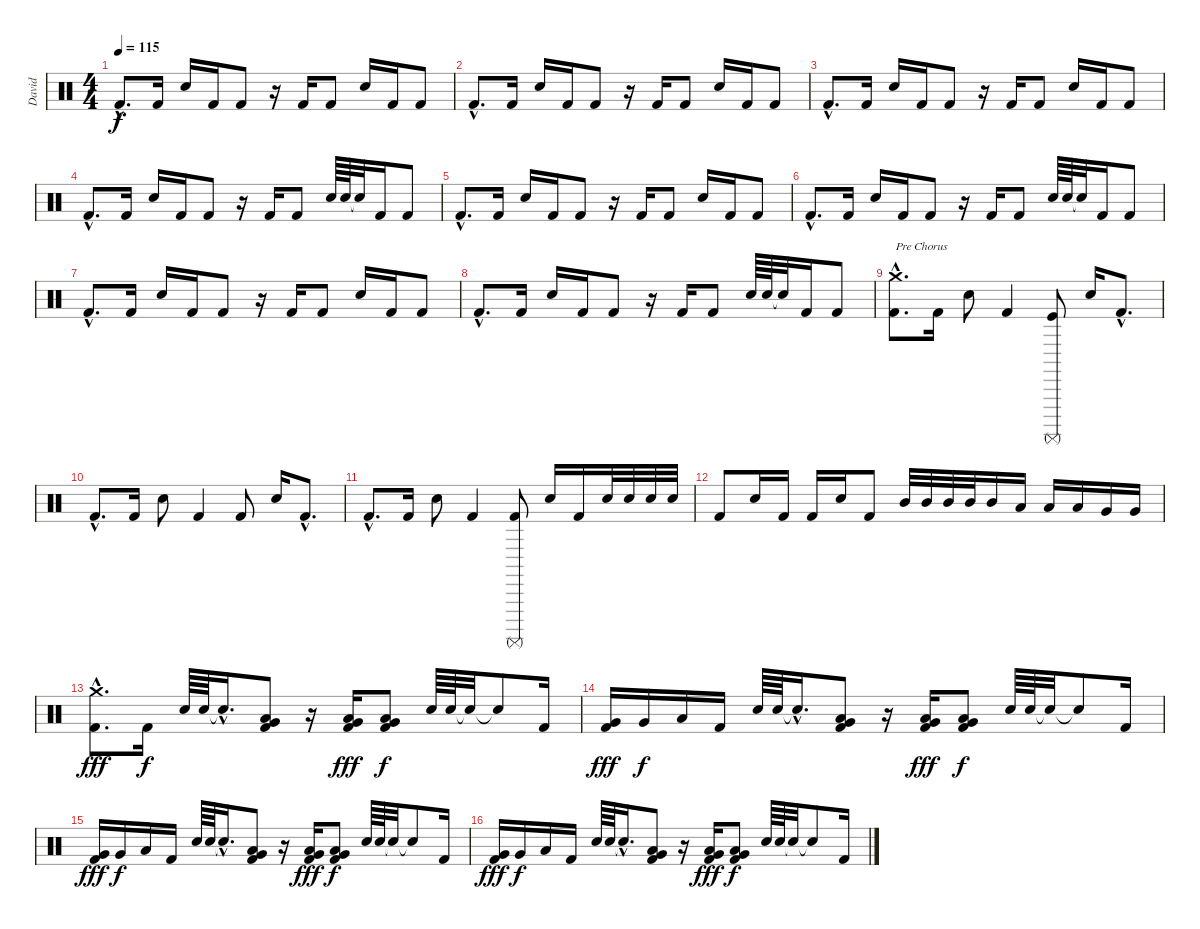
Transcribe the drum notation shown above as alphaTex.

\track ("David" "David") {instrument percussion}
\staff {score}
\articulation defaults
\ts (4 4)
\tempo 115
\clef neutral
\ks c "Kick (hit) 2"{hac}.8{d dy f} "Kick (hit) 2".16 "Snare (hit) 2".16 "Kick (hit) 2".16 "Kick (hit) 2".8
r.16 "Kick (hit) 2".16 "Kick (hit) 2".8 "Snare (hit) 2".16 "Kick (hit) 2".16 "Kick (hit) 2".8 |
"Kick (hit) 2"{hac}.8{d} "Kick (hit) 2".16 "Snare (hit) 2".16 "Kick (hit) 2".16 "Kick (hit) 2".8 r.16 "Kick (hit) 2".16 "Kick (hit) 2".8 "Snare (hit) 2".16 "Kick (hit) 2".16 "Kick (hit) 2".8 |
"Kick (hit) 2"{hac}.8{d} "Kick (hit) 2".16 "Snare (hit) 2".16 "Kick (hit) 2".16 "Kick (hit) 2".8 r.16 "Kick (hit) 2".16 "Kick (hit) 2".8 "Snare (hit) 2".16 "Kick (hit) 2".16 "Kick (hit) 2".8 |
"Kick (hit) 2"{hac}.8{d} "Kick (hit) 2".16 "Snare (hit) 2".16 "Kick (hit) 2".16 "Kick (hit) 2".8 r.16 "Kick (hit) 2".16 "Kick (hit) 2".8 "Snare (hit) 2".64 "Snare (hit) 2".64 "Snare (hit)"{t}.32 "Kick (hit) 2".16 "Kick (hit) 2".8 |
"Kick (hit) 2"{hac}.8{d} "Kick (hit) 2".16 "Snare (hit) 2".16 "Kick (hit) 2".16 "Kick (hit) 2".8 r.16 "Kick (hit) 2".16 "Kick (hit) 2".8 "Snare (hit) 2".16 "Kick (hit) 2".16 "Kick (hit) 2".8 |
"Kick (hit) 2"{hac}.8{d} "Kick (hit) 2".16 "Snare (hit) 2".16 "Kick (hit) 2".16 "Kick (hit) 2".8 r.16 "Kick (hit) 2".16 "Kick (hit) 2".8 "Snare (hit) 2".64 "Snare (hit) 2".64 "Snare (hit)"{t}.32 "Kick (hit) 2".16 "Kick (hit) 2".8 |
"Kick (hit) 2"{hac}.8{d} "Kick (hit) 2".16 "Snare (hit) 2".16 "Kick (hit) 2".16 "Kick (hit) 2".8 r.16 "Kick (hit) 2".16 "Kick (hit) 2".8 "Snare (hit) 2".16 "Kick (hit) 2".16 "Kick (hit) 2".8 |
"Kick (hit) 2"{hac}.8{d} "Kick (hit) 2".16 "Snare (hit) 2".16 "Kick (hit) 2".16 "Kick (hit) 2".8 r.16 "Kick (hit) 2".16 "Kick (hit) 2".8 "Snare (hit) 2".64 "Snare (hit) 2".64 "Snare (hit)"{t}.32 "Kick (hit) 2".16 "Kick (hit) 2".8 |
("Crash medium (hit)"{hac} "Kick (hit) 2"{hac}).8{d txt "Pre Chorus"} "Kick (hit) 2".16 "Snare (hit) 2".8 "Kick (hit) 2".4 ("Kick (hit)" "Surdo (mute)").8 "Snare (hit) 2".16 "Kick (hit) 2"{hac}.8{d} |
"Kick (hit) 2"{hac}.8{d} "Kick (hit) 2".16 "Snare (hit) 2".8 "Kick (hit) 2".4 "Kick (hit) 2".8 "Snare (hit) 2".16 "Kick (hit) 2"{hac}.8{d} |
"Kick (hit) 2"{hac}.8{d} "Kick (hit) 2".16 "Snare (hit) 2".8 "Kick (hit) 2".4 ("Surdo (mute)" "Kick (hit) 2").8 "Snare (hit) 2".16 "Kick (hit) 2".16 "Snare (hit) 2".32 "Snare (hit) 2".32 "Snare (hit) 2".32 "Snare (hit) 2".32 |
"Kick (hit) 2".8 "Snare (hit) 2".16 "Kick (hit) 2".16 "Kick (hit) 2".16 "Snare (hit) 2".16 "Kick (hit) 2".8 "Mid Tom (hit)".32 "Mid Tom (hit)".32 "Mid Tom (hit)".32 "Mid Tom (hit)".32 "Mid Tom (hit)".16 "Low Tom (hit)".16 "Low Tom (hit)".16 "Low Tom (hit)".16 "Very Low Tom (hit)".16 "Very Low Tom (hit)".16 |
("Crash medium (hit)"{hac} "Kick (hit) 2"{hac}).8{d dy fff} "Kick (hit) 2".16{dy f} "Snare (hit) 2".64 "Snare (hit) 2".64 "Snare (hit)"{hac t}.16{d} ("Low Tom (hit)" "Very Low Tom (hit)" "Kick (hit) 2").8 r.16 ("Very Low Tom (hit)" "Low Floor Tom (hit)" "Kick (hit) 2").16{dy fff} ("Very Low Tom (hit)" "Low Floor Tom (hit)" "Kick (hit) 2").8{dy f} "Snare (hit) 2".64 "Snare (hit) 2".64 "Snare (hit)"{t}.32 "Snare (hit)"{t}.8 "Kick (hit) 2".16 |
("Very Low Tom (hit)" "Kick (hit) 2").16{dy fff} "Very Low Tom (hit)".16{dy f} "Low Floor Tom (hit)".16 "Kick (hit) 2".16 "Snare (hit) 2".64 "Snare (hit) 2".64 "Snare (hit)"{hac t}.16{d} ("Low Tom (hit)" "Very Low Tom (hit)" "Kick (hit) 2").8 r.16 ("Very Low Tom (hit)" "Low Floor Tom (hit)" "Kick (hit) 2").16{dy fff} ("Very Low Tom (hit)" "Low Floor Tom (hit)" "Kick (hit) 2").8{dy f} "Snare (hit) 2".64 "Snare (hit) 2".64 "Snare (hit)"{t}.32 "Snare (hit)"{t}.8 "Kick (hit) 2".16 |
("Very Low Tom (hit)" "Kick (hit) 2").16{dy fff} "Very Low Tom (hit)".16{dy f} "Low Floor Tom (hit)".16 "Kick (hit) 2".16 "Snare (hit) 2".64 "Snare (hit) 2".64 "Snare (hit)"{hac t}.16{d} ("Low Tom (hit)" "Very Low Tom (hit)" "Kick (hit) 2").8 r.16 ("Very Low Tom (hit)" "Low Floor Tom (hit)" "Kick (hit) 2").16{dy fff} ("Very Low Tom (hit)" "Low Floor Tom (hit)" "Kick (hit) 2").8{dy f} "Snare (hit) 2".64 "Snare (hit) 2".64 "Snare (hit)"{t}.32 "Snare (hit)"{t}.8 "Kick (hit) 2".16 |
("Very Low Tom (hit)" "Kick (hit) 2").16{dy fff} "Very Low Tom (hit)".16{dy f} "Low Floor Tom (hit)".16 "Kick (hit) 2".16 "Snare (hit) 2".64 "Snare (hit) 2".64 "Snare (hit)"{hac t}.16{d} ("Low Tom (hit)" "Very Low Tom (hit)" "Kick (hit) 2").8 r.16 ("Very Low Tom (hit)" "Low Floor Tom (hit)" "Kick (hit) 2").16{dy fff} ("Very Low Tom (hit)" "Low Floor Tom (hit)" "Kick (hit) 2").8{dy f} "Snare (hit) 2".64 "Snare (hit) 2".64 "Snare (hit)"{t}.32 "Snare (hit)"{t}.8 "Kick (hit) 2".16
